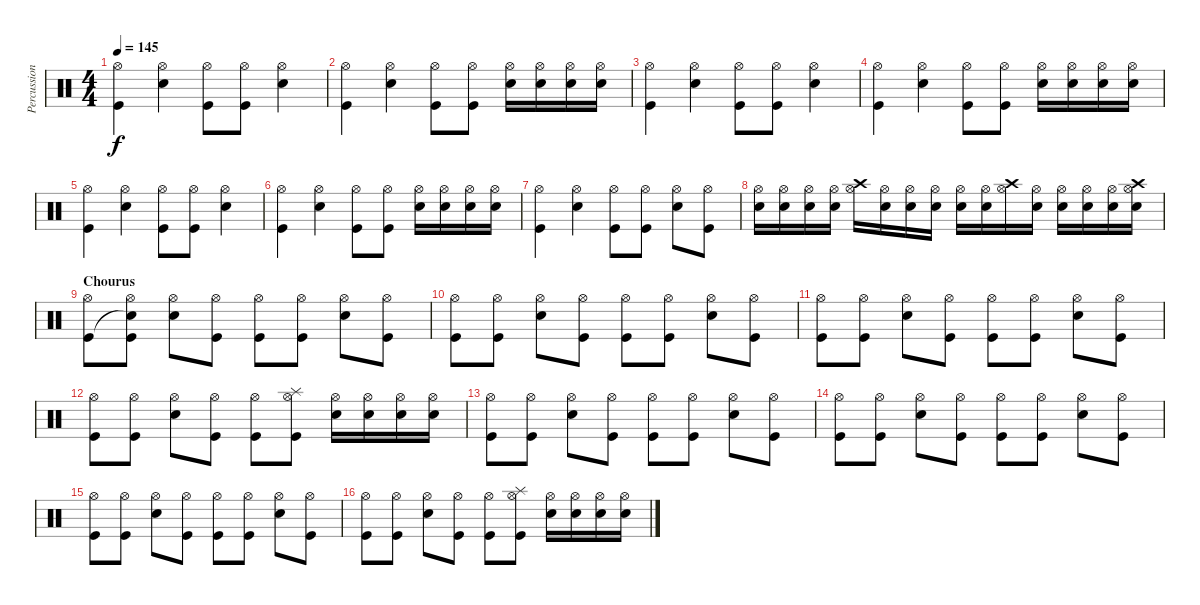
\track ("Percussion" "Percussion") {instrument percussion}
\staff {score}
\articulation defaults
\ts (4 4)
\tempo 145
\clef neutral
\ks c
("Hi-Hat (open)" "Kick (hit)").4{dy f} ("Hi-Hat (open)" "Snare (hit) 2").4 ("Hi-Hat (open)" "Kick (hit)").8 ("Hi-Hat (open)" "Kick (hit)").8 ("Hi-Hat (open)" "Snare (hit) 2").4 |
("Hi-Hat (open)" "Kick (hit)").4 ("Hi-Hat (open)" "Snare (hit) 2").4 ("Hi-Hat (open)" "Kick (hit)").8 ("Hi-Hat (open)" "Kick (hit)").8 ("Hi-Hat (open)" "Snare (hit) 2").16 ("Hi-Hat (open)" "Snare (hit) 2").16 ("Hi-Hat (open)" "Snare (hit) 2").16 ("Hi-Hat (open)" "Snare (hit) 2").16 |
("Hi-Hat (open)" "Kick (hit)").4 ("Hi-Hat (open)" "Snare (hit) 2").4 ("Hi-Hat (open)" "Kick (hit)").8 ("Hi-Hat (open)" "Kick (hit)").8 ("Hi-Hat (open)" "Snare (hit) 2").4 |
("Hi-Hat (open)" "Kick (hit)").4 ("Hi-Hat (open)" "Snare (hit) 2").4 ("Hi-Hat (open)" "Kick (hit)").8 ("Hi-Hat (open)" "Kick (hit)").8 ("Hi-Hat (open)" "Snare (hit) 2").16 ("Hi-Hat (open)" "Snare (hit) 2").16 ("Hi-Hat (open)" "Snare (hit) 2").16 ("Hi-Hat (open)" "Snare (hit) 2").16 |
("Hi-Hat (open)" "Kick (hit)").4 ("Hi-Hat (open)" "Snare (hit) 2").4 ("Hi-Hat (open)" "Kick (hit)").8 ("Hi-Hat (open)" "Kick (hit)").8 ("Hi-Hat (open)" "Snare (hit) 2").4 |
("Hi-Hat (open)" "Kick (hit)").4 ("Hi-Hat (open)" "Snare (hit) 2").4 ("Hi-Hat (open)" "Kick (hit)").8 ("Hi-Hat (open)" "Kick (hit)").8 ("Hi-Hat (open)" "Snare (hit) 2").16 ("Hi-Hat (open)" "Snare (hit) 2").16 ("Hi-Hat (open)" "Snare (hit) 2").16 ("Hi-Hat (open)" "Snare (hit) 2").16 |
("Hi-Hat (open)" "Kick (hit)").4 ("Hi-Hat (open)" "Snare (hit) 2").4 ("Hi-Hat (open)" "Kick (hit)").8 ("Hi-Hat (open)" "Kick (hit)").8 ("Hi-Hat (open)" "Snare (hit) 2").8 ("Hi-Hat (open)" "Kick (hit)").8 |
("Hi-Hat (open)" "Snare (hit) 2").16 ("Hi-Hat (open)" "Snare (hit) 2").16 ("Hi-Hat (open)" "Snare (hit) 2").16 ("Hi-Hat (open)" "Snare (hit) 2").16 ("Hi-Hat (open)" "Crash high (hit)").16 ("Hi-Hat (open)" "Snare (hit) 2").16 ("Hi-Hat (open)" "Snare (hit) 2").16 ("Hi-Hat (open)" "Snare (hit) 2").16 ("Hi-Hat (open)" "Snare (hit) 2").16 ("Hi-Hat (open)" "Snare (hit) 2").16 ("Hi-Hat (open)" "Crash high (hit)").16 ("Hi-Hat (open)" "Snare (hit) 2").16 ("Hi-Hat (open)" "Snare (hit) 2").16 ("Hi-Hat (open)" "Snare (hit) 2").16 ("Hi-Hat (open)" "Snare (hit) 2").16 ("Hi-Hat (open)" "Crash high (hit)" "Snare (hit) 2").16 |
\section ("" "Chourus")
("Hi-Hat (open)" "Kick (hit)").8 ("Hi-Hat (open)" "Snare (hit)"{t} "Kick (hit)").8 ("Hi-Hat (open)" "Snare (hit) 2").8 ("Hi-Hat (open)" "Kick (hit)").8 ("Hi-Hat (open)" "Kick (hit)").8 ("Hi-Hat (open)" "Kick (hit)").8 ("Hi-Hat (open)" "Snare (hit) 2").8 ("Hi-Hat (open)" "Kick (hit)").8 |
("Hi-Hat (open)" "Kick (hit)").8 ("Hi-Hat (open)" "Kick (hit)").8 ("Hi-Hat (open)" "Snare (hit) 2").8 ("Hi-Hat (open)" "Kick (hit)").8 ("Hi-Hat (open)" "Kick (hit)").8 ("Hi-Hat (open)" "Kick (hit)").8 ("Hi-Hat (open)" "Snare (hit) 2").8 ("Hi-Hat (open)" "Kick (hit)").8 |
("Hi-Hat (open)" "Kick (hit)").8 ("Hi-Hat (open)" "Kick (hit)").8 ("Hi-Hat (open)" "Snare (hit) 2").8 ("Hi-Hat (open)" "Kick (hit)").8 ("Hi-Hat (open)" "Kick (hit)").8 ("Hi-Hat (open)" "Kick (hit)").8 ("Hi-Hat (open)" "Snare (hit) 2").8 ("Hi-Hat (open)" "Kick (hit)").8 |
("Hi-Hat (open)" "Kick (hit)").8 ("Hi-Hat (open)" "Kick (hit)").8 ("Hi-Hat (open)" "Snare (hit) 2").8 ("Hi-Hat (open)" "Kick (hit)").8 ("Hi-Hat (open)" "Kick (hit)").8 ("Hi-Hat (open)" "Splash (hit)" "Kick (hit)").8 ("Hi-Hat (open)" "Snare (hit) 2").16 ("Hi-Hat (open)" "Snare (hit) 2").16 ("Hi-Hat (open)" "Snare (hit) 2").16 ("Hi-Hat (open)" "Snare (hit) 2").16 |
("Hi-Hat (open)" "Kick (hit)").8 ("Hi-Hat (open)" "Kick (hit)").8 ("Hi-Hat (open)" "Snare (hit) 2").8 ("Hi-Hat (open)" "Kick (hit)").8 ("Hi-Hat (open)" "Kick (hit)").8 ("Hi-Hat (open)" "Kick (hit)").8 ("Hi-Hat (open)" "Snare (hit) 2").8 ("Hi-Hat (open)" "Kick (hit)").8 |
("Hi-Hat (open)" "Kick (hit)").8 ("Hi-Hat (open)" "Kick (hit)").8 ("Hi-Hat (open)" "Snare (hit) 2").8 ("Hi-Hat (open)" "Kick (hit)").8 ("Hi-Hat (open)" "Kick (hit)").8 ("Hi-Hat (open)" "Kick (hit)").8 ("Hi-Hat (open)" "Snare (hit) 2").8 ("Hi-Hat (open)" "Kick (hit)").8 |
("Hi-Hat (open)" "Kick (hit)").8 ("Hi-Hat (open)" "Kick (hit)").8 ("Hi-Hat (open)" "Snare (hit) 2").8 ("Hi-Hat (open)" "Kick (hit)").8 ("Hi-Hat (open)" "Kick (hit)").8 ("Hi-Hat (open)" "Kick (hit)").8 ("Hi-Hat (open)" "Snare (hit) 2").8 ("Hi-Hat (open)" "Kick (hit)").8 |
("Hi-Hat (open)" "Kick (hit)").8 ("Hi-Hat (open)" "Kick (hit)").8 ("Hi-Hat (open)" "Snare (hit) 2").8 ("Hi-Hat (open)" "Kick (hit)").8 ("Hi-Hat (open)" "Kick (hit)").8 ("Hi-Hat (open)" "Splash (hit)" "Kick (hit)").8 ("Hi-Hat (open)" "Snare (hit) 2").16 ("Hi-Hat (open)" "Snare (hit) 2").16 ("Hi-Hat (open)" "Snare (hit) 2").16 ("Hi-Hat (open)" "Snare (hit) 2").16
